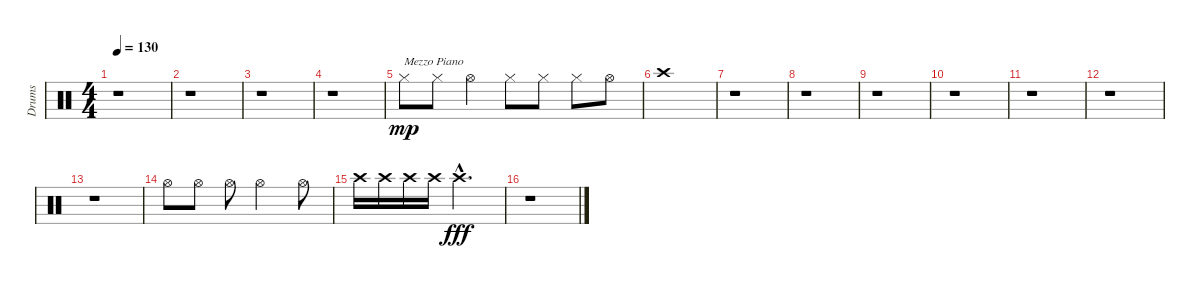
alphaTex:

\track ("Drums" "Drums") {instrument percussion}
\staff {score}
\articulation defaults
\ts (4 4)
\tempo 130
\clef neutral
\ks c
r.1{dy f} |
r.1 |
r.1 |
r.1 |
"Hi-Hat (closed)".8{txt "Mezzo Piano" dy mp} "Hi-Hat (closed)".8 "Hi-Hat (open)".4 "Hi-Hat (closed)".8 "Hi-Hat (closed)".8 "Hi-Hat (closed)".8 "Hi-Hat (open)".8 |
"Crash high (hit)".1 |
r.1 |
r.1 |
r.1 |
r.1 |
r.1 |
r.1 |
r.1 |
"Hi-Hat (open)".8 "Hi-Hat (open)".8 "Hi-Hat (open)".8 "Hi-Hat (open)".2 "Hi-Hat (open)".8 |
"Crash high (hit)".16 "Crash high (hit)".16 "Crash high (hit)".16 "Crash high (hit)".16 "Crash high (hit)"{hac}.2{d dy fff} |
r.1
